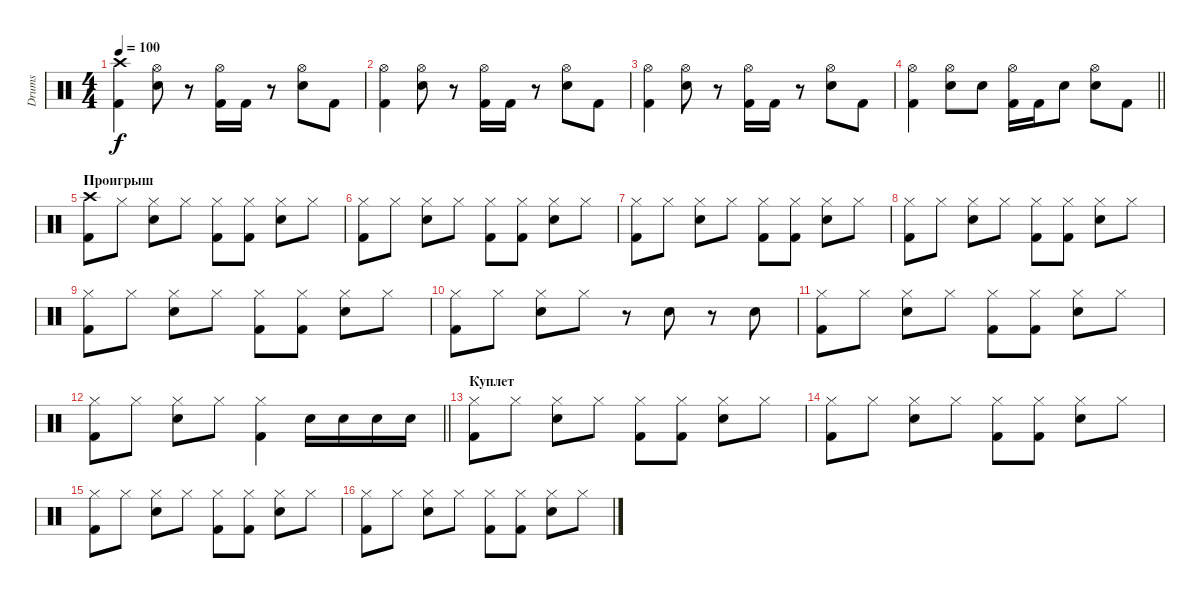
\track ("Drums" "Drums") {instrument percussion}
\staff {score}
\articulation defaults
\ts (4 4)
\tempo 100
\clef neutral
\ks c
("Crash high (hit)" "Kick (hit) 2").4{dy f} ("Hi-Hat (open)" "Snare (hit) 2").8 r.8 ("Hi-Hat (open)" "Kick (hit) 2").16 "Kick (hit) 2".16 r.8 ("Hi-Hat (open)" "Snare (hit) 2").8 "Kick (hit) 2".8 |
("Hi-Hat (open)" "Kick (hit) 2").4 ("Hi-Hat (open)" "Snare (hit) 2").8 r.8 ("Hi-Hat (open)" "Kick (hit) 2").16 "Kick (hit) 2".16 r.8 ("Hi-Hat (open)" "Snare (hit) 2").8 "Kick (hit) 2".8 |
("Hi-Hat (open)" "Kick (hit) 2").4 ("Hi-Hat (open)" "Snare (hit) 2").8 r.8 ("Hi-Hat (open)" "Kick (hit) 2").16 "Kick (hit) 2".16 r.8 ("Hi-Hat (open)" "Snare (hit) 2").8 "Kick (hit) 2".8 |
\barLineRight lightlight
("Hi-Hat (open)" "Kick (hit) 2").4 ("Hi-Hat (open)" "Snare (hit) 2").8 "Snare (hit) 2".8 ("Hi-Hat (open)" "Kick (hit) 2").16 "Kick (hit) 2".16 "Snare (hit) 2".8 ("Hi-Hat (open)" "Snare (hit) 2").8 "Kick (hit) 2".8 |
\section ("" "Проигрыш")
("Crash high (hit)" "Kick (hit) 2").8 "Hi-Hat (closed)".8 ("Hi-Hat (closed)" "Snare (hit) 2").8 "Hi-Hat (closed)".8 ("Hi-Hat (closed)" "Kick (hit) 2").8 ("Hi-Hat (closed)" "Kick (hit) 2").8 ("Hi-Hat (closed)" "Snare (hit) 2").8 "Hi-Hat (closed)".8 |
("Hi-Hat (closed)" "Kick (hit) 2").8 "Hi-Hat (closed)".8 ("Hi-Hat (closed)" "Snare (hit) 2").8 "Hi-Hat (closed)".8 ("Hi-Hat (closed)" "Kick (hit) 2").8 ("Hi-Hat (closed)" "Kick (hit) 2").8 ("Hi-Hat (closed)" "Snare (hit) 2").8 "Hi-Hat (closed)".8 |
("Hi-Hat (closed)" "Kick (hit) 2").8 "Hi-Hat (closed)".8 ("Hi-Hat (closed)" "Snare (hit) 2").8 "Hi-Hat (closed)".8 ("Hi-Hat (closed)" "Kick (hit) 2").8 ("Hi-Hat (closed)" "Kick (hit) 2").8 ("Hi-Hat (closed)" "Snare (hit) 2").8 "Hi-Hat (closed)".8 |
("Hi-Hat (closed)" "Kick (hit) 2").8 "Hi-Hat (closed)".8 ("Hi-Hat (closed)" "Snare (hit) 2").8 "Hi-Hat (closed)".8 ("Hi-Hat (closed)" "Kick (hit) 2").8 ("Hi-Hat (closed)" "Kick (hit) 2").8 ("Hi-Hat (closed)" "Snare (hit) 2").8 "Hi-Hat (closed)".8 |
("Hi-Hat (closed)" "Kick (hit) 2").8 "Hi-Hat (closed)".8 ("Hi-Hat (closed)" "Snare (hit) 2").8 "Hi-Hat (closed)".8 ("Hi-Hat (closed)" "Kick (hit) 2").8 ("Hi-Hat (closed)" "Kick (hit) 2").8 ("Hi-Hat (closed)" "Snare (hit) 2").8 "Hi-Hat (closed)".8 |
("Hi-Hat (closed)" "Kick (hit) 2").8 "Hi-Hat (closed)".8 ("Hi-Hat (closed)" "Snare (hit) 2").8 "Hi-Hat (closed)".8 r.8 "Snare (hit) 2".8 r.8 "Snare (hit) 2".8 |
("Hi-Hat (closed)" "Kick (hit) 2").8 "Hi-Hat (closed)".8 ("Hi-Hat (closed)" "Snare (hit) 2").8 "Hi-Hat (closed)".8 ("Hi-Hat (closed)" "Kick (hit) 2").8 ("Hi-Hat (closed)" "Kick (hit) 2").8 ("Hi-Hat (closed)" "Snare (hit) 2").8 "Hi-Hat (closed)".8 |
\barLineRight lightlight
("Hi-Hat (closed)" "Kick (hit) 2").8 "Hi-Hat (closed)".8 ("Hi-Hat (closed)" "Snare (hit) 2").8 "Hi-Hat (closed)".8 ("Hi-Hat (closed)" "Kick (hit) 2").4 "Snare (hit) 2".16 "Snare (hit) 2".16 "Snare (hit) 2".16 "Snare (hit) 2".16 |
\section ("" "Куплет")
("Hi-Hat (closed)" "Kick (hit) 2").8 "Hi-Hat (closed)".8 ("Hi-Hat (closed)" "Snare (hit) 2").8 "Hi-Hat (closed)".8 ("Hi-Hat (closed)" "Kick (hit) 2").8 ("Hi-Hat (closed)" "Kick (hit) 2").8 ("Hi-Hat (closed)" "Snare (hit) 2").8 "Hi-Hat (closed)".8 |
("Hi-Hat (closed)" "Kick (hit) 2").8 "Hi-Hat (closed)".8 ("Hi-Hat (closed)" "Snare (hit) 2").8 "Hi-Hat (closed)".8 ("Hi-Hat (closed)" "Kick (hit) 2").8 ("Hi-Hat (closed)" "Kick (hit) 2").8 ("Hi-Hat (closed)" "Snare (hit) 2").8 "Hi-Hat (closed)".8 |
("Hi-Hat (closed)" "Kick (hit) 2").8 "Hi-Hat (closed)".8 ("Hi-Hat (closed)" "Snare (hit) 2").8 "Hi-Hat (closed)".8 ("Hi-Hat (closed)" "Kick (hit) 2").8 ("Hi-Hat (closed)" "Kick (hit) 2").8 ("Hi-Hat (closed)" "Snare (hit) 2").8 "Hi-Hat (closed)".8 |
("Hi-Hat (closed)" "Kick (hit) 2").8 "Hi-Hat (closed)".8 ("Hi-Hat (closed)" "Snare (hit) 2").8 "Hi-Hat (closed)".8 ("Hi-Hat (closed)" "Kick (hit) 2").8 ("Hi-Hat (closed)" "Kick (hit) 2").8 ("Hi-Hat (closed)" "Snare (hit) 2").8 "Hi-Hat (closed)".8
